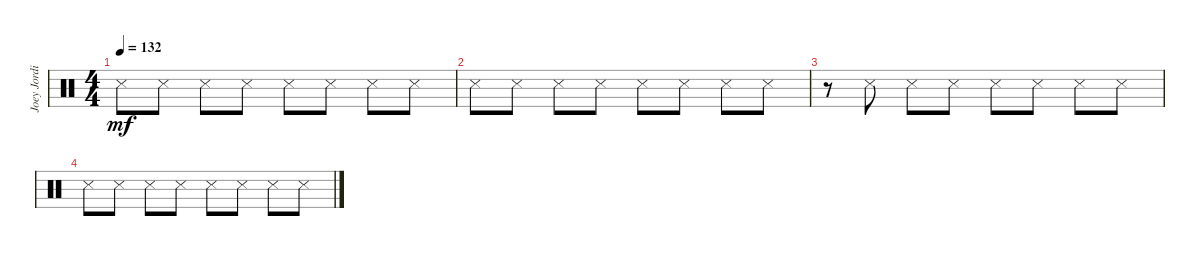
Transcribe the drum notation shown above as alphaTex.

\track ("Joey Jordison (Intro)" "Joey Jordi") {instrument percussion}
\staff {score}
\articulation defaults
\ts (4 4)
\tempo 132
\clef neutral
\ks c "Snare (side stick) 3".8{dy mf} "Snare (side stick) 3".8 "Snare (side stick) 3".8 "Snare (side stick) 3".8 "Snare (side stick) 3".8 "Snare (side stick) 3".8 "Snare (side stick) 3".8 "Snare (side stick) 3".8
|
"Snare (side stick) 3".8 "Snare (side stick) 3".8 "Snare (side stick) 3".8 "Snare (side stick) 3".8 "Snare (side stick) 3".8 "Snare (side stick) 3".8 "Snare (side stick) 3".8 "Snare (side stick) 3".8 |
r.8 "Snare (side stick) 3".8 "Snare (side stick) 3".8 "Snare (side stick) 3".8 "Snare (side stick) 3".8 "Snare (side stick) 3".8 "Snare (side stick) 3".8 "Snare (side stick) 3".8 |
"Snare (side stick) 3".8 "Snare (side stick) 3".8 "Snare (side stick) 3".8 "Snare (side stick) 3".8 "Snare (side stick) 3".8 "Snare (side stick) 3".8 "Snare (side stick) 3".8 "Snare (side stick) 3".8
